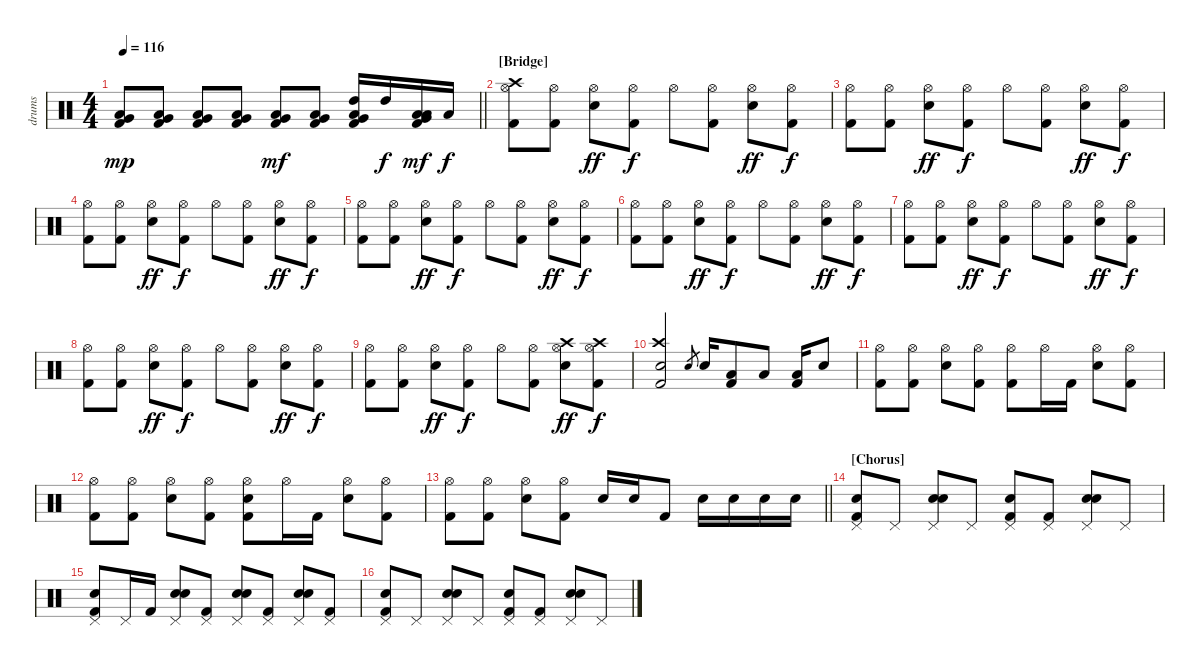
\track ("drums" "drums") {instrument percussion}
\staff {score}
\articulation defaults
\ts (4 4)
\tempo 116
\clef neutral
\barLineRight lightlight
\ks c
("Very Low Tom (hit)" "Low Tom (hit)" "Kick (hit) 2").8{dy mp} ("Very Low Tom (hit)" "Low Tom (hit)" "Kick (hit) 2").8 ("Very Low Tom (hit)" "Low Tom (hit)" "Kick (hit) 2").8 ("Very Low Tom (hit)" "Low Tom (hit)" "Kick (hit) 2").8 ("Very Low Tom (hit)" "Low Tom (hit)" "Kick (hit) 2").8{dy mf} ("Very Low Tom (hit)" "Low Tom (hit)" "Kick (hit) 2").8 ("Very Low Tom (hit)" "Low Tom (hit)" "High Tom (hit)" "Kick (hit) 2").16 "High Tom (hit)".16{dy f} ("Very Low Tom (hit)" "Low Tom (hit)" "Low Tom (hit)" "Kick (hit) 2").16{dy mf} "Low Tom (hit)".16{dy f} |
\section ("" "[Bridge]")
("Crash high (hit)" "Hi-Hat (open)" "Kick (hit) 2").8 ("Hi-Hat (open)" "Kick (hit) 2").8 ("Hi-Hat (open)" "Snare (hit) 2").8{dy ff} ("Hi-Hat (open)" "Kick (hit) 2").8{dy f} "Hi-Hat (open)".8 ("Hi-Hat (open)" "Kick (hit) 2").8 ("Hi-Hat (open)" "Snare (hit) 2").8{dy ff} ("Hi-Hat (open)" "Kick (hit) 2").8{dy f} |
("Hi-Hat (open)" "Kick (hit) 2").8 ("Hi-Hat (open)" "Kick (hit) 2").8 ("Hi-Hat (open)" "Snare (hit) 2").8{dy ff} ("Hi-Hat (open)" "Kick (hit) 2").8{dy f} "Hi-Hat (open)".8 ("Hi-Hat (open)" "Kick (hit) 2").8 ("Hi-Hat (open)" "Snare (hit) 2").8{dy ff} ("Hi-Hat (open)" "Kick (hit) 2").8{dy f} |
("Hi-Hat (open)" "Kick (hit) 2").8 ("Hi-Hat (open)" "Kick (hit) 2").8 ("Hi-Hat (open)" "Snare (hit) 2").8{dy ff} ("Hi-Hat (open)" "Kick (hit) 2").8{dy f} "Hi-Hat (open)".8 ("Hi-Hat (open)" "Kick (hit) 2").8 ("Hi-Hat (open)" "Snare (hit) 2").8{dy ff} ("Hi-Hat (open)" "Kick (hit) 2").8{dy f} |
("Hi-Hat (open)" "Kick (hit) 2").8 ("Hi-Hat (open)" "Kick (hit) 2").8 ("Hi-Hat (open)" "Snare (hit) 2").8{dy ff} ("Hi-Hat (open)" "Kick (hit) 2").8{dy f} "Hi-Hat (open)".8 ("Hi-Hat (open)" "Kick (hit) 2").8 ("Hi-Hat (open)" "Snare (hit) 2").8{dy ff} ("Hi-Hat (open)" "Kick (hit) 2").8{dy f} |
("Hi-Hat (open)" "Kick (hit) 2").8 ("Hi-Hat (open)" "Kick (hit) 2").8 ("Hi-Hat (open)" "Snare (hit) 2").8{dy ff} ("Hi-Hat (open)" "Kick (hit) 2").8{dy f} "Hi-Hat (open)".8 ("Hi-Hat (open)" "Kick (hit) 2").8 ("Hi-Hat (open)" "Snare (hit) 2").8{dy ff} ("Hi-Hat (open)" "Kick (hit) 2").8{dy f} |
("Hi-Hat (open)" "Kick (hit) 2").8 ("Hi-Hat (open)" "Kick (hit) 2").8 ("Hi-Hat (open)" "Snare (hit) 2").8{dy ff} ("Hi-Hat (open)" "Kick (hit) 2").8{dy f} "Hi-Hat (open)".8 ("Hi-Hat (open)" "Kick (hit) 2").8 ("Hi-Hat (open)" "Snare (hit) 2").8{dy ff} ("Hi-Hat (open)" "Kick (hit) 2").8{dy f} |
("Hi-Hat (open)" "Kick (hit) 2").8 ("Hi-Hat (open)" "Kick (hit) 2").8 ("Hi-Hat (open)" "Snare (hit) 2").8{dy ff} ("Hi-Hat (open)" "Kick (hit) 2").8{dy f} "Hi-Hat (open)".8 ("Hi-Hat (open)" "Kick (hit) 2").8 ("Hi-Hat (open)" "Snare (hit) 2").8{dy ff} ("Hi-Hat (open)" "Kick (hit) 2").8{dy f} |
("Hi-Hat (open)" "Kick (hit) 2").8 ("Hi-Hat (open)" "Kick (hit) 2").8 ("Hi-Hat (open)" "Snare (hit) 2").8{dy ff} ("Hi-Hat (open)" "Kick (hit) 2").8{dy f} "Hi-Hat (open)".8 ("Hi-Hat (open)" "Kick (hit) 2").8 ("Crash high (hit)" "Hi-Hat (open)" "Snare (hit) 2").8{dy ff} ("Crash high (hit)" "Hi-Hat (open)" "Kick (hit) 2").8{dy f} |
("Crash high (hit)" "Snare (hit) 2" "Kick (hit) 2").2 "Snare (hit) 2".8{gr} "Snare (hit) 2".16 ("Low Tom (hit)" "Kick (hit) 2").8 "Low Tom (hit)".8 ("Low Tom (hit)" "Kick (hit) 2").16 "Snare (hit) 2".8 |
("Hi-Hat (open)" "Kick (hit) 2").8 ("Hi-Hat (open)" "Kick (hit) 2").8 ("Hi-Hat (open)" "Snare (hit) 2").8 ("Hi-Hat (open)" "Kick (hit) 2").8 ("Hi-Hat (open)" "Kick (hit) 2").8 "Hi-Hat (open)".16 "Kick (hit) 2".16 ("Hi-Hat (open)" "Snare (hit) 2").8 ("Hi-Hat (open)" "Kick (hit) 2").8 |
("Hi-Hat (open)" "Kick (hit) 2").8 ("Hi-Hat (open)" "Kick (hit) 2").8 ("Hi-Hat (open)" "Snare (hit) 2").8 ("Hi-Hat (open)" "Kick (hit) 2").8 ("Hi-Hat (open)" "Snare (hit) 2" "Kick (hit) 2").8 "Hi-Hat (open)".16 "Kick (hit) 2".16 ("Hi-Hat (open)" "Snare (hit) 2").8 ("Hi-Hat (open)" "Kick (hit) 2").8 |
\barLineRight lightlight
("Hi-Hat (open)" "Kick (hit) 2").8 ("Hi-Hat (open)" "Kick (hit) 2").8 ("Hi-Hat (open)" "Snare (hit) 2").8 ("Hi-Hat (open)" "Kick (hit) 2").8 "Snare (hit) 2".16 "Snare (hit) 2".16 "Kick (hit) 2".8 "Snare (hit) 2".16 "Snare (hit) 2".16 "Snare (hit) 2".16 "Snare (hit) 2".16 |
\section ("" "[Chorus]")
("Hand Clap (hit)" "Pedal Hi-Hat (hit)" "Kick (hit) 2").8 "Pedal Hi-Hat (hit)".8 ("Hand Clap (hit)" "Pedal Hi-Hat (hit)" "Snare (hit) 2").8 "Pedal Hi-Hat (hit)".8 ("Hand Clap (hit)" "Pedal Hi-Hat (hit)" "Kick (hit) 2").8 ("Pedal Hi-Hat (hit)" "Kick (hit) 2").8 ("Hand Clap (hit)" "Pedal Hi-Hat (hit)" "Snare (hit) 2").8 "Pedal Hi-Hat (hit)".8 |
("Hand Clap (hit)" "Pedal Hi-Hat (hit)" "Kick (hit) 2").8 "Pedal Hi-Hat (hit)".16 "Kick (hit) 2".16 ("Hand Clap (hit)" "Pedal Hi-Hat (hit)" "Snare (hit) 2").8 ("Pedal Hi-Hat (hit)" "Kick (hit) 2").8 ("Hand Clap (hit)" "Pedal Hi-Hat (hit)" "Snare (hit) 2").8 ("Pedal Hi-Hat (hit)" "Kick (hit) 2").8 ("Hand Clap (hit)" "Pedal Hi-Hat (hit)" "Snare (hit) 2").8 ("Pedal Hi-Hat (hit)" "Kick (hit) 2").8 |
("Hand Clap (hit)" "Pedal Hi-Hat (hit)" "Kick (hit) 2").8 "Pedal Hi-Hat (hit)".8 ("Hand Clap (hit)" "Pedal Hi-Hat (hit)" "Snare (hit) 2").8 "Pedal Hi-Hat (hit)".8 ("Hand Clap (hit)" "Pedal Hi-Hat (hit)" "Kick (hit) 2").8 ("Pedal Hi-Hat (hit)" "Kick (hit) 2").8 ("Hand Clap (hit)" "Pedal Hi-Hat (hit)" "Snare (hit) 2").8 "Pedal Hi-Hat (hit)".8
